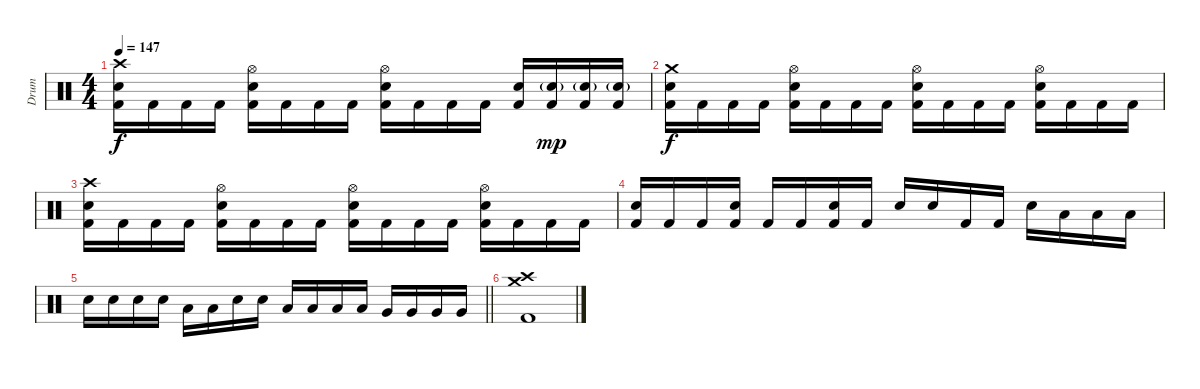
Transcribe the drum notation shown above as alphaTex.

\track ("Drum" "Drum") {instrument percussion}
\staff {score}
\articulation defaults
\ts (4 4)
\tempo 147
\clef neutral
\ks c
("Crash high (hit)" "Electric Snare (hit)" "Kick (hit) 2").16{dy f} "Kick (hit) 2".16 "Kick (hit) 2".16 "Kick (hit) 2".16 ("Hi-Hat (open)" "Electric Snare (hit)" "Kick (hit) 2").16 "Kick (hit) 2".16 "Kick (hit) 2".16 "Kick (hit) 2".16 ("Hi-Hat (open)" "Electric Snare (hit)" "Kick (hit) 2").16 "Kick (hit) 2".16 "Kick (hit) 2".16 "Kick (hit) 2".16 ("Electric Snare (hit)" "Kick (hit) 2").16 ("Electric Snare (hit)"{g} "Kick (hit) 2").16{dy mp} ("Electric Snare (hit)"{g} "Kick (hit) 2").16 ("Electric Snare (hit)"{g} "Kick (hit) 2").16 |
("Crash medium (hit)" "Electric Snare (hit)" "Kick (hit) 2").16{dy f} "Kick (hit) 2".16 "Kick (hit) 2".16 "Kick (hit) 2".16 ("Hi-Hat (open)" "Electric Snare (hit)" "Kick (hit) 2").16 "Kick (hit) 2".16 "Kick (hit) 2".16 "Kick (hit) 2".16 ("Hi-Hat (open)" "Electric Snare (hit)" "Kick (hit) 2").16 "Kick (hit) 2".16 "Kick (hit) 2".16 "Kick (hit) 2".16 ("Hi-Hat (open)" "Electric Snare (hit)" "Kick (hit) 2").16 "Kick (hit) 2".16 "Kick (hit) 2".16 "Kick (hit) 2".16 |
("Crash high (hit)" "Electric Snare (hit)" "Kick (hit) 2").16 "Kick (hit) 2".16 "Kick (hit) 2".16 "Kick (hit) 2".16 ("Hi-Hat (open)" "Electric Snare (hit)" "Kick (hit) 2").16 "Kick (hit) 2".16 "Kick (hit) 2".16 "Kick (hit) 2".16 ("Hi-Hat (open)" "Electric Snare (hit)" "Kick (hit) 2").16 "Kick (hit) 2".16 "Kick (hit) 2".16 "Kick (hit) 2".16 ("Hi-Hat (open)" "Electric Snare (hit)" "Kick (hit) 2").16 "Kick (hit) 2".16 "Kick (hit) 2".16 "Kick (hit) 2".16 |
("Electric Snare (hit)" "Kick (hit) 2").16 "Kick (hit) 2".16 "Kick (hit) 2".16 ("Electric Snare (hit)" "Kick (hit) 2").16 "Kick (hit) 2".16 "Kick (hit) 2".16 ("Electric Snare (hit)" "Kick (hit) 2").16 "Kick (hit) 2".16 "Electric Snare (hit)".16 "Electric Snare (hit)".16 "Kick (hit) 2".16 "Kick (hit) 2".16 "Electric Snare (hit)".16 "Low Tom (hit)".16 "Low Tom (hit)".16 "Low Tom (hit)".16 |
\barLineRight lightlight "Electric Snare (hit)".16 "Electric Snare (hit)".16 "Electric Snare (hit)".16 "Electric Snare (hit)".16 "Low Tom (hit)".16 "Low Tom (hit)".16 "Electric Snare (hit)".16 "Electric Snare (hit)".16 "Low Tom (hit)".16 "Low Tom (hit)".16 "Low Tom (hit)".16 "Low Tom (hit)".16 "Very Low Tom (hit)".16 "Very Low Tom (hit)".16 "Very Low Tom (hit)".16 "Very Low Tom (hit)".16
|
("Crash high (hit)" "Crash medium (hit)" "Kick (hit) 2").1
